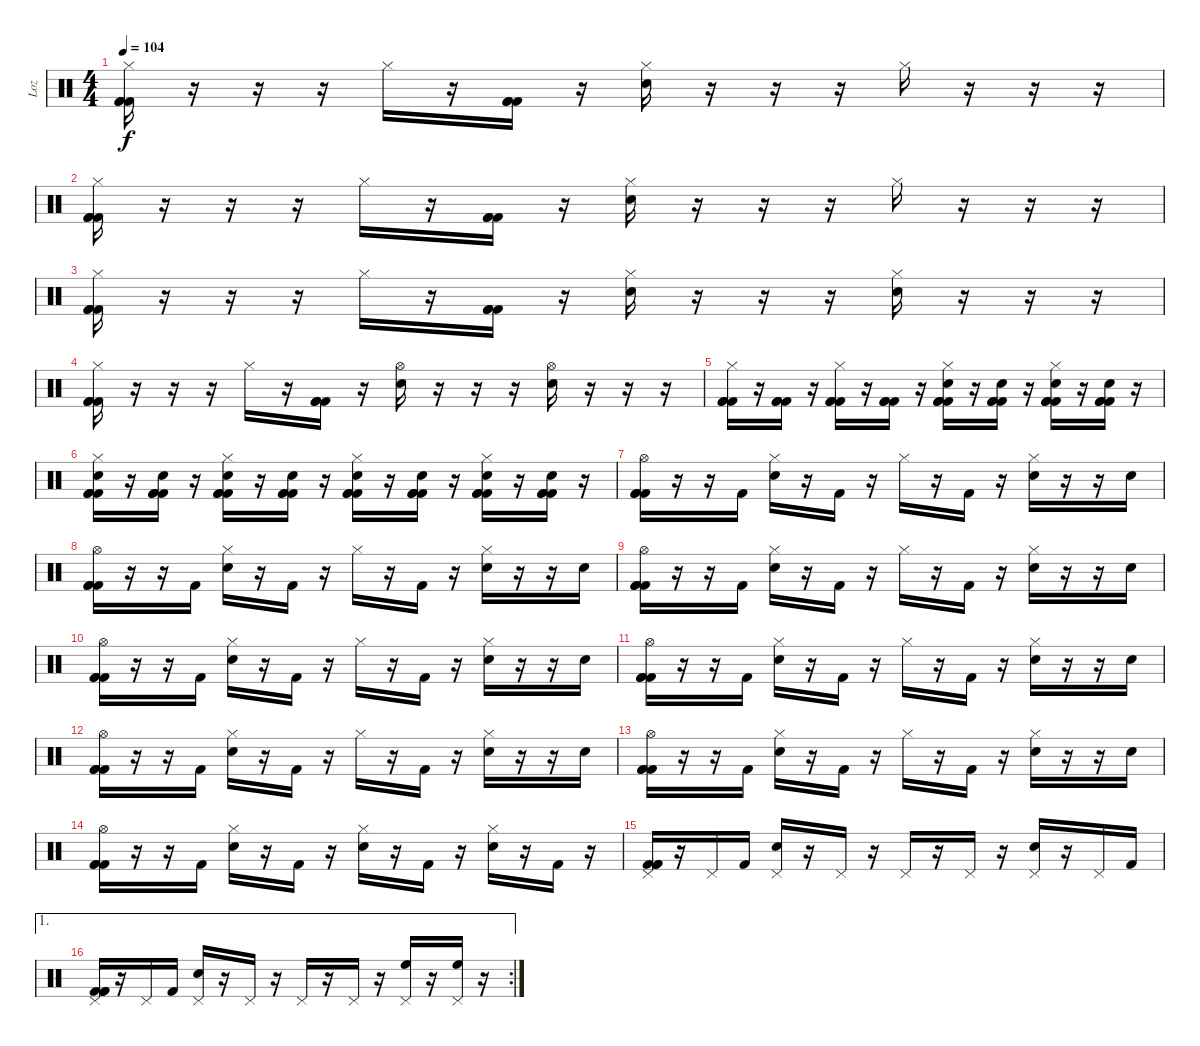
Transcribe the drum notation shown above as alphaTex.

\track ("Loz" "Loz") {instrument percussion}
\staff {score}
\articulation defaults
\ts (4 4)
\tempo 104
\clef neutral
\ks c
("Hi-Hat (closed)" "Kick (hit) 2" "Kick (hit) 2" "Kick (hit) 2").16{dy f} r.16 r.16 r.16 "Hi-Hat (closed)".16 r.16 ("Kick (hit) 2" "Kick (hit) 2" "Kick (hit) 2").16 r.16 ("Hi-Hat (closed)" "Electric Snare (hit)").16 r.16 r.16 r.16 "Hi-Hat (closed)".16 r.16 r.16 r.16 |
("Hi-Hat (closed)" "Kick (hit) 2" "Kick (hit) 2" "Kick (hit) 2").16 r.16 r.16 r.16 "Hi-Hat (closed)".16 r.16 ("Kick (hit) 2" "Kick (hit) 2" "Kick (hit) 2").16 r.16 ("Hi-Hat (closed)" "Electric Snare (hit)").16 r.16 r.16 r.16 "Hi-Hat (closed)".16 r.16 r.16 r.16 |
("Hi-Hat (closed)" "Kick (hit) 2" "Kick (hit) 2" "Kick (hit) 2").16 r.16 r.16 r.16 "Hi-Hat (closed)".16 r.16 ("Kick (hit) 2" "Kick (hit) 2" "Kick (hit) 2").16 r.16 ("Hi-Hat (closed)" "Electric Snare (hit)").16 r.16 r.16 r.16 ("Hi-Hat (closed)" "Electric Snare (hit)").16 r.16 r.16 r.16 |
("Hi-Hat (closed)" "Kick (hit) 2" "Kick (hit) 2" "Kick (hit) 2").16 r.16 r.16 r.16 "Hi-Hat (closed)".16 r.16 ("Kick (hit) 2" "Kick (hit) 2" "Kick (hit) 2").16 r.16 ("Hi-Hat (open)" "Electric Snare (hit)").16 r.16 r.16 r.16 ("Hi-Hat (open)" "Electric Snare (hit)").16 r.16 r.16 r.16 |
("Hi-Hat (closed)" "Kick (hit) 2" "Kick (hit) 2" "Kick (hit) 2").16 r.16 ("Kick (hit) 2" "Kick (hit) 2" "Kick (hit) 2").16 r.16 ("Hi-Hat (closed)" "Kick (hit) 2" "Kick (hit) 2" "Kick (hit) 2").16 r.16 ("Kick (hit) 2" "Kick (hit) 2" "Kick (hit) 2").16 r.16 ("Hi-Hat (closed)" "Electric Snare (hit)" "Kick (hit) 2" "Kick (hit) 2" "Kick (hit) 2").16 r.16 ("Electric Snare (hit)" "Kick (hit) 2" "Kick (hit) 2" "Kick (hit) 2").16 r.16 ("Hi-Hat (closed)" "Electric Snare (hit)" "Kick (hit) 2" "Kick (hit) 2" "Kick (hit) 2").16 r.16 ("Electric Snare (hit)" "Kick (hit) 2" "Kick (hit) 2" "Kick (hit) 2").16 r.16 |
("Hi-Hat (closed)" "Electric Snare (hit)" "Kick (hit) 2" "Kick (hit) 2" "Kick (hit) 2").16 r.16 ("Electric Snare (hit)" "Kick (hit) 2" "Kick (hit) 2" "Kick (hit) 2").16 r.16 ("Hi-Hat (closed)" "Electric Snare (hit)" "Kick (hit) 2" "Kick (hit) 2" "Kick (hit) 2").16 r.16 ("Electric Snare (hit)" "Kick (hit) 2" "Kick (hit) 2" "Kick (hit) 2").16 r.16 ("Hi-Hat (closed)" "Electric Snare (hit)" "Kick (hit) 2" "Kick (hit) 2" "Kick (hit) 2").16 r.16 ("Electric Snare (hit)" "Kick (hit) 2" "Kick (hit) 2" "Kick (hit) 2").16 r.16 ("Hi-Hat (closed)" "Electric Snare (hit)" "Kick (hit) 2" "Kick (hit) 2" "Kick (hit) 2").16 r.16 ("Electric Snare (hit)" "Kick (hit) 2" "Kick (hit) 2" "Kick (hit) 2").16 r.16 |
("Hi-Hat (open)" "Kick (hit) 2" "Kick (hit) 2" "Kick (hit) 2").16 r.16 r.16 "Kick (hit) 2".16 ("Hi-Hat (closed)" "Electric Snare (hit)").16 r.16 "Kick (hit) 2".16 r.16 "Hi-Hat (closed)".16 r.16 "Kick (hit) 2".16 r.16 ("Hi-Hat (closed)" "Electric Snare (hit)").16 r.16 r.16 "Electric Snare (hit)".16 |
("Hi-Hat (open)" "Kick (hit) 2" "Kick (hit) 2" "Kick (hit) 2").16 r.16 r.16 "Kick (hit) 2".16 ("Hi-Hat (closed)" "Electric Snare (hit)").16 r.16 "Kick (hit) 2".16 r.16 "Hi-Hat (closed)".16 r.16 "Kick (hit) 2".16 r.16 ("Hi-Hat (closed)" "Electric Snare (hit)").16 r.16 r.16 "Electric Snare (hit)".16 |
("Hi-Hat (open)" "Kick (hit) 2" "Kick (hit) 2" "Kick (hit) 2").16 r.16 r.16 "Kick (hit) 2".16 ("Hi-Hat (closed)" "Electric Snare (hit)").16 r.16 "Kick (hit) 2".16 r.16 "Hi-Hat (closed)".16 r.16 "Kick (hit) 2".16 r.16 ("Hi-Hat (closed)" "Electric Snare (hit)").16 r.16 r.16 "Electric Snare (hit)".16 |
("Hi-Hat (open)" "Kick (hit) 2" "Kick (hit) 2" "Kick (hit) 2").16 r.16 r.16 "Kick (hit) 2".16 ("Hi-Hat (closed)" "Electric Snare (hit)").16 r.16 "Kick (hit) 2".16 r.16 "Hi-Hat (closed)".16 r.16 "Kick (hit) 2".16 r.16 ("Hi-Hat (closed)" "Electric Snare (hit)").16 r.16 r.16 "Electric Snare (hit)".16 |
("Hi-Hat (open)" "Kick (hit) 2" "Kick (hit) 2" "Kick (hit) 2").16 r.16 r.16 "Kick (hit) 2".16 ("Hi-Hat (closed)" "Electric Snare (hit)").16 r.16 "Kick (hit) 2".16 r.16 "Hi-Hat (closed)".16 r.16 "Kick (hit) 2".16 r.16 ("Hi-Hat (closed)" "Electric Snare (hit)").16 r.16 r.16 "Electric Snare (hit)".16 |
("Hi-Hat (open)" "Kick (hit) 2" "Kick (hit) 2" "Kick (hit) 2").16 r.16 r.16 "Kick (hit) 2".16 ("Hi-Hat (closed)" "Electric Snare (hit)").16 r.16 "Kick (hit) 2".16 r.16 "Hi-Hat (closed)".16 r.16 "Kick (hit) 2".16 r.16 ("Hi-Hat (closed)" "Electric Snare (hit)").16 r.16 r.16 "Electric Snare (hit)".16 |
("Hi-Hat (open)" "Kick (hit) 2" "Kick (hit) 2" "Kick (hit) 2").16 r.16 r.16 "Kick (hit) 2".16 ("Hi-Hat (closed)" "Electric Snare (hit)").16 r.16 "Kick (hit) 2".16 r.16 "Hi-Hat (closed)".16 r.16 "Kick (hit) 2".16 r.16 ("Hi-Hat (closed)" "Electric Snare (hit)").16 r.16 r.16 "Electric Snare (hit)".16 |
("Hi-Hat (open)" "Kick (hit) 2" "Kick (hit) 2" "Kick (hit) 2").16 r.16 r.16 "Kick (hit) 2".16 ("Hi-Hat (closed)" "Electric Snare (hit)").16 r.16 "Kick (hit) 2".16 r.16 ("Hi-Hat (closed)" "Electric Snare (hit)").16 r.16 "Kick (hit) 2".16 r.16 ("Hi-Hat (closed)" "Electric Snare (hit)").16 r.16 "Kick (hit) 2".16 r.16 |
("Pedal Hi-Hat (hit)" "Kick (hit) 2" "Kick (hit) 2" "Kick (hit) 2").16 r.16 "Pedal Hi-Hat (hit)".16 "Kick (hit) 2".16 ("Pedal Hi-Hat (hit)" "Electric Snare (hit)").16 r.16 "Pedal Hi-Hat (hit)".16 r.16 "Pedal Hi-Hat (hit)".16 r.16 "Pedal Hi-Hat (hit)".16 r.16 ("Pedal Hi-Hat (hit)" "Electric Snare (hit)").16 r.16 "Pedal Hi-Hat (hit)".16 "Kick (hit) 2".16 |
\ae 1
\rc 2
("Pedal Hi-Hat (hit)" "Kick (hit) 2" "Kick (hit) 2" "Kick (hit) 2").16 r.16 "Pedal Hi-Hat (hit)".16 "Kick (hit) 2".16 ("Pedal Hi-Hat (hit)" "Electric Snare (hit)").16 r.16 "Pedal Hi-Hat (hit)".16 r.16 "Pedal Hi-Hat (hit)".16 r.16 "Pedal Hi-Hat (hit)".16 r.16 ("Pedal Hi-Hat (hit)" "High Floor Tom (hit)").16 r.16 ("Pedal Hi-Hat (hit)" "High Floor Tom (hit)").16 r.16
